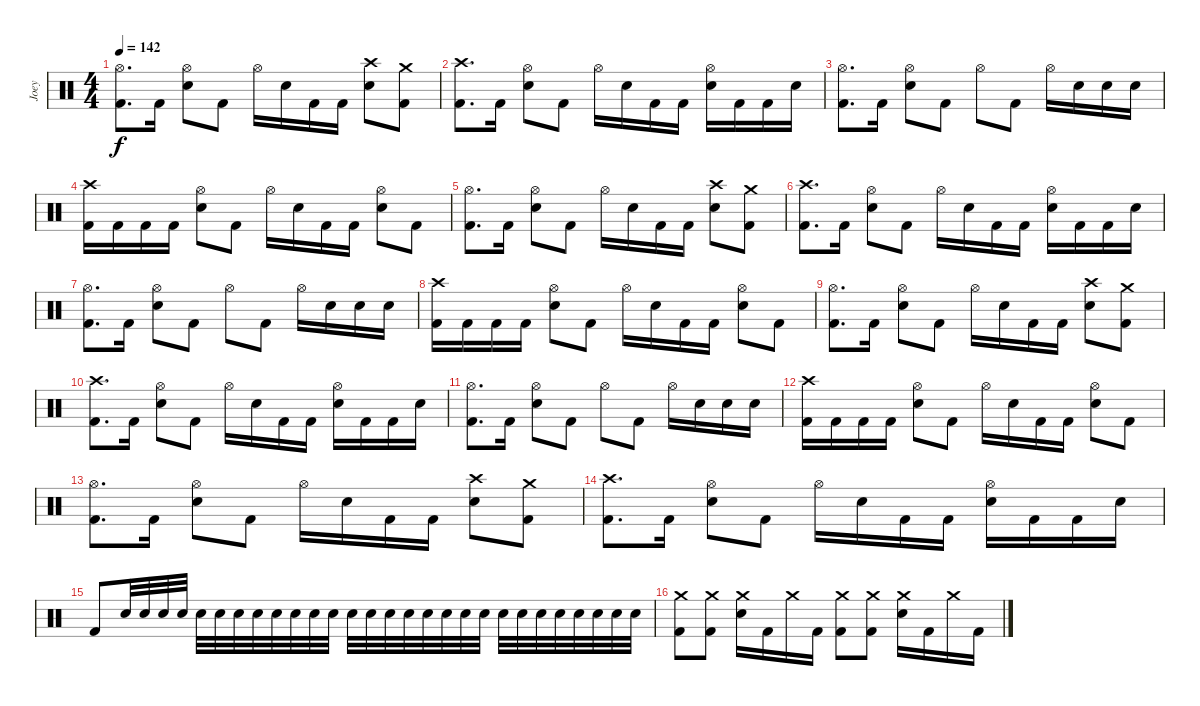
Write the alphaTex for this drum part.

\track ("Joey" "Joey") {instrument percussion}
\staff {score}
\articulation defaults
\ts (4 4)
\tempo 142
\clef neutral
\ks c
("Hi-Hat (open)" "Kick (hit) 2").8{d dy f} "Kick (hit) 2".16 ("Hi-Hat (open)" "Electric Snare (hit)").8 "Kick (hit) 2".8 "Hi-Hat (open)".16 "Electric Snare (hit)".16 "Kick (hit) 2".16 "Kick (hit) 2".16 ("Crash high (hit)" "Electric Snare (hit)").8 ("Crash medium (hit)" "Kick (hit) 2").8 |
("Crash high (hit)" "Kick (hit) 2").8{d} "Kick (hit) 2".16 ("Hi-Hat (open)" "Electric Snare (hit)").8 "Kick (hit) 2".8 "Hi-Hat (open)".16 "Electric Snare (hit)".16 "Kick (hit) 2".16 "Kick (hit) 2".16 ("Hi-Hat (open)" "Electric Snare (hit)").16 "Kick (hit) 2".16 "Kick (hit) 2".16 "Electric Snare (hit)".16 |
("Hi-Hat (open)" "Kick (hit) 2").8{d} "Kick (hit) 2".16 ("Hi-Hat (open)" "Electric Snare (hit)").8 "Kick (hit) 2".8 "Hi-Hat (open)".8 "Kick (hit) 2".8 "Hi-Hat (open)".16 "Electric Snare (hit)".16 "Electric Snare (hit)".16 "Electric Snare (hit)".16 |
("Crash high (hit)" "Kick (hit) 2").16 "Kick (hit) 2".16 "Kick (hit) 2".16 "Kick (hit) 2".16 ("Hi-Hat (open)" "Electric Snare (hit)").8 "Kick (hit) 2".8 "Hi-Hat (open)".16 "Electric Snare (hit)".16 "Kick (hit) 2".16 "Kick (hit) 2".16 ("Hi-Hat (open)" "Electric Snare (hit)").8 "Kick (hit) 2".8 |
("Hi-Hat (open)" "Kick (hit) 2").8{d} "Kick (hit) 2".16 ("Hi-Hat (open)" "Electric Snare (hit)").8 "Kick (hit) 2".8 "Hi-Hat (open)".16 "Electric Snare (hit)".16 "Kick (hit) 2".16 "Kick (hit) 2".16 ("Crash high (hit)" "Electric Snare (hit)").8 ("Crash medium (hit)" "Kick (hit) 2").8 |
("Crash high (hit)" "Kick (hit) 2").8{d} "Kick (hit) 2".16 ("Hi-Hat (open)" "Electric Snare (hit)").8 "Kick (hit) 2".8 "Hi-Hat (open)".16 "Electric Snare (hit)".16 "Kick (hit) 2".16 "Kick (hit) 2".16 ("Hi-Hat (open)" "Electric Snare (hit)").16 "Kick (hit) 2".16 "Kick (hit) 2".16 "Electric Snare (hit)".16 |
("Hi-Hat (open)" "Kick (hit) 2").8{d} "Kick (hit) 2".16 ("Hi-Hat (open)" "Electric Snare (hit)").8 "Kick (hit) 2".8 "Hi-Hat (open)".8 "Kick (hit) 2".8 "Hi-Hat (open)".16 "Electric Snare (hit)".16 "Electric Snare (hit)".16 "Electric Snare (hit)".16 |
("Crash high (hit)" "Kick (hit) 2").16 "Kick (hit) 2".16 "Kick (hit) 2".16 "Kick (hit) 2".16 ("Hi-Hat (open)" "Electric Snare (hit)").8 "Kick (hit) 2".8 "Hi-Hat (open)".16 "Electric Snare (hit)".16 "Kick (hit) 2".16 "Kick (hit) 2".16 ("Hi-Hat (open)" "Electric Snare (hit)").8 "Kick (hit) 2".8 |
("Hi-Hat (open)" "Kick (hit) 2").8{d} "Kick (hit) 2".16 ("Hi-Hat (open)" "Electric Snare (hit)").8 "Kick (hit) 2".8 "Hi-Hat (open)".16 "Electric Snare (hit)".16 "Kick (hit) 2".16 "Kick (hit) 2".16 ("Crash high (hit)" "Electric Snare (hit)").8 ("Crash medium (hit)" "Kick (hit) 2").8 |
("Crash high (hit)" "Kick (hit) 2").8{d} "Kick (hit) 2".16 ("Hi-Hat (open)" "Electric Snare (hit)").8 "Kick (hit) 2".8 "Hi-Hat (open)".16 "Electric Snare (hit)".16 "Kick (hit) 2".16 "Kick (hit) 2".16 ("Hi-Hat (open)" "Electric Snare (hit)").16 "Kick (hit) 2".16 "Kick (hit) 2".16 "Electric Snare (hit)".16 |
("Hi-Hat (open)" "Kick (hit) 2").8{d} "Kick (hit) 2".16 ("Hi-Hat (open)" "Electric Snare (hit)").8 "Kick (hit) 2".8 "Hi-Hat (open)".8 "Kick (hit) 2".8 "Hi-Hat (open)".16 "Electric Snare (hit)".16 "Electric Snare (hit)".16 "Electric Snare (hit)".16 |
("Crash high (hit)" "Kick (hit) 2").16 "Kick (hit) 2".16 "Kick (hit) 2".16 "Kick (hit) 2".16 ("Hi-Hat (open)" "Electric Snare (hit)").8 "Kick (hit) 2".8 "Hi-Hat (open)".16 "Electric Snare (hit)".16 "Kick (hit) 2".16 "Kick (hit) 2".16 ("Hi-Hat (open)" "Electric Snare (hit)").8 "Kick (hit) 2".8 |
("Hi-Hat (open)" "Kick (hit) 2").8{d} "Kick (hit) 2".16 ("Hi-Hat (open)" "Electric Snare (hit)").8 "Kick (hit) 2".8 "Hi-Hat (open)".16 "Electric Snare (hit)".16 "Kick (hit) 2".16 "Kick (hit) 2".16 ("Crash high (hit)" "Electric Snare (hit)").8 ("Crash medium (hit)" "Kick (hit) 2").8 |
("Crash high (hit)" "Kick (hit) 2").8{d} "Kick (hit) 2".16 ("Hi-Hat (open)" "Electric Snare (hit)").8 "Kick (hit) 2".8 "Hi-Hat (open)".16 "Electric Snare (hit)".16 "Kick (hit) 2".16 "Kick (hit) 2".16 ("Hi-Hat (open)" "Electric Snare (hit)").16 "Kick (hit) 2".16 "Kick (hit) 2".16 "Electric Snare (hit)".16 |
"Kick (hit) 2".8 "Electric Snare (hit)".32 "Electric Snare (hit)".32 "Electric Snare (hit)".32 "Electric Snare (hit)".32 "Electric Snare (hit)".32 "Electric Snare (hit)".32 "Electric Snare (hit)".32 "Electric Snare (hit)".32 "Electric Snare (hit)".32 "Electric Snare (hit)".32 "Electric Snare (hit)".32 "Electric Snare (hit)".32 "Electric Snare (hit)".32 "Electric Snare (hit)".32 "Electric Snare (hit)".32 "Electric Snare (hit)".32 "Electric Snare (hit)".32 "Electric Snare (hit)".32 "Electric Snare (hit)".32 "Electric Snare (hit)".32 "Electric Snare (hit)".32 "Electric Snare (hit)".32 "Electric Snare (hit)".32 "Electric Snare (hit)".32 "Electric Snare (hit)".32 "Electric Snare (hit)".32 "Electric Snare (hit)".32 "Electric Snare (hit)".32 |
("Crash medium (hit)" "Kick (hit) 2").8 ("Crash medium (hit)" "Kick (hit) 2").8 ("Crash medium (hit)" "Electric Snare (hit)").16 "Kick (hit) 2".16 "Crash medium (hit)".16 "Kick (hit) 2".16 ("Crash medium (hit)" "Kick (hit) 2").8 ("Crash medium (hit)" "Kick (hit) 2").8 ("Crash medium (hit)" "Electric Snare (hit)").16 "Kick (hit) 2".16 "Crash medium (hit)".16 "Kick (hit) 2".16
